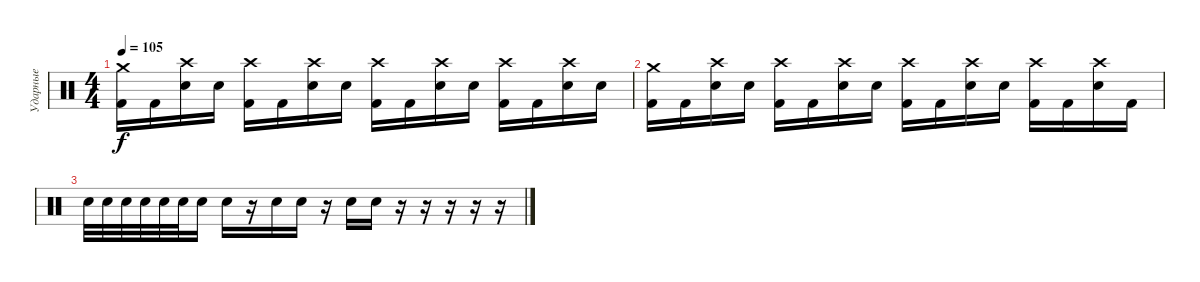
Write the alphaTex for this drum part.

\track ("Ударные" "Ударные") {instrument percussion}
\staff {score}
\articulation defaults
\ts (4 4)
\tempo 105
\clef neutral
\ks c
("Crash medium (hit)" "Kick (hit) 2").16{dy f} "Kick (hit) 2".16 ("Crash high (hit)" "Electric Snare (hit)").16 "Snare (hit)".16 ("Crash high (hit)" "Kick (hit) 2").16 "Kick (hit) 2".16 ("Crash high (hit)" "Electric Snare (hit)").16 "Snare (hit)".16 ("Crash high (hit)" "Kick (hit) 2").16 "Kick (hit) 2".16 ("Crash high (hit)" "Electric Snare (hit)").16 "Snare (hit)".16 ("Crash high (hit)" "Kick (hit) 2").16 "Kick (hit) 2".16 ("Crash high (hit)" "Electric Snare (hit)").16 "Snare (hit)".16 |
("Crash medium (hit)" "Kick (hit) 2").16 "Kick (hit) 2".16 ("Crash high (hit)" "Electric Snare (hit)").16 "Snare (hit)".16 ("Crash high (hit)" "Kick (hit) 2").16 "Kick (hit) 2".16 ("Crash high (hit)" "Electric Snare (hit)").16 "Snare (hit)".16 ("Crash high (hit)" "Kick (hit) 2").16 "Kick (hit) 2".16 ("Crash high (hit)" "Electric Snare (hit)").16 "Snare (hit)".16 ("Crash high (hit)" "Kick (hit) 2").16 "Kick (hit) 2".16 ("Crash high (hit)" "Electric Snare (hit)").16 "Kick (hit) 2".16 |
"Electric Snare (hit)".32 "Electric Snare (hit)".32 "Electric Snare (hit)".32 "Electric Snare (hit)".32 "Electric Snare (hit)".32 "Electric Snare (hit)".32 "Electric Snare (hit)".16 "Electric Snare (hit)".16 r.16 "Electric Snare (hit)".16 "Electric Snare (hit)".16 r.16 "Electric Snare (hit)".16 "Electric Snare (hit)".16 r.16 r.16 r.16 r.16 r.16
